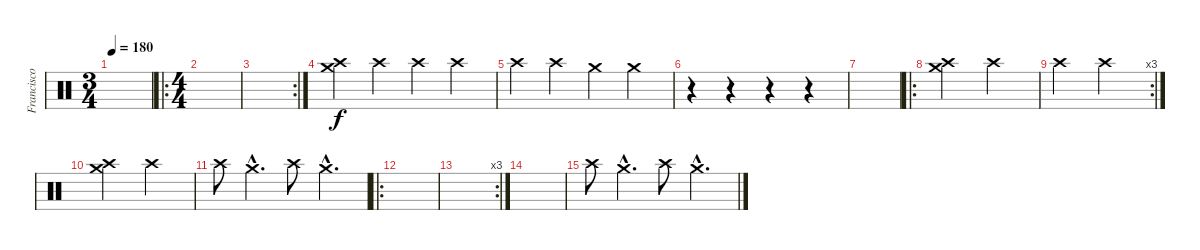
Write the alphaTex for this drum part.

\track ("Francisco Izquierdo (Percusión)" "Francisco ") {instrument percussion}
\staff {score}
\articulation defaults
\ts (3 4)
\tempo 180
\clef neutral
\ks c
|
\ro
\ts (4 4)
|
\rc 2
|
("Crash high (hit)" "Crash medium (hit)").4 "Crash high (hit)".4 "Crash high (hit)".4 "Crash high (hit)".4 |
"Crash high (hit)".4 "Crash high (hit)".4 "Crash medium (hit)".4 "Crash medium (hit)".4 |
r.4 r.4 r.4 r.4 |
|
\ro
("Crash high (hit)" "Crash medium (hit)").2 "Crash high (hit)".2 |
\rc 3 "Crash high (hit)".2 "Crash high (hit)".2
|
("Crash high (hit)" "Crash medium (hit)").2 "Crash high (hit)".2 |
"Crash high (hit)".8 "Crash medium (hit)"{hac}.4{d} "Crash high (hit)".8 "Crash medium (hit)"{hac}.4{d} |
\ro
|
\rc 3
|
|
"Crash high (hit)".8 "Crash medium (hit)"{hac}.4{d} "Crash high (hit)".8 "Crash medium (hit)"{hac}.4{d}
